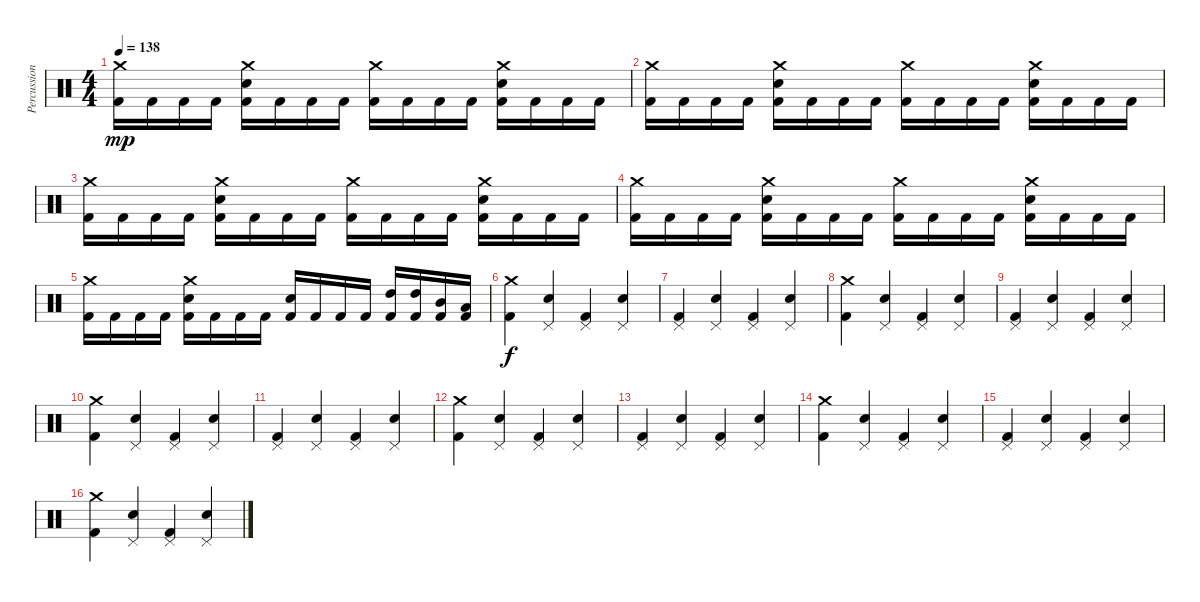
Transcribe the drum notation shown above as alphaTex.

\track ("Percussion" "Percussion") {instrument percussion}
\staff {score}
\articulation defaults
\ts (4 4)
\tempo 138
\clef neutral
\ks c
("Crash medium (hit)" "Kick (hit) 2").16{dy mp} "Kick (hit) 2".16 "Kick (hit) 2".16 "Kick (hit) 2".16 ("Crash medium (hit)" "Snare (hit) 2" "Kick (hit) 2").16 "Kick (hit) 2".16 "Kick (hit) 2".16 "Kick (hit) 2".16 ("Crash medium (hit)" "Kick (hit) 2").16 "Kick (hit) 2".16 "Kick (hit) 2".16 "Kick (hit) 2".16 ("Crash medium (hit)" "Snare (hit) 2" "Kick (hit) 2").16 "Kick (hit) 2".16 "Kick (hit) 2".16 "Kick (hit) 2".16 |
("Crash medium (hit)" "Kick (hit) 2").16 "Kick (hit) 2".16 "Kick (hit) 2".16 "Kick (hit) 2".16 ("Crash medium (hit)" "Snare (hit) 2" "Kick (hit) 2").16 "Kick (hit) 2".16 "Kick (hit) 2".16 "Kick (hit) 2".16 ("Crash medium (hit)" "Kick (hit) 2").16 "Kick (hit) 2".16 "Kick (hit) 2".16 "Kick (hit) 2".16 ("Crash medium (hit)" "Snare (hit) 2" "Kick (hit) 2").16 "Kick (hit) 2".16 "Kick (hit) 2".16 "Kick (hit) 2".16 |
("Crash medium (hit)" "Kick (hit) 2").16 "Kick (hit) 2".16 "Kick (hit) 2".16 "Kick (hit) 2".16 ("Crash medium (hit)" "Snare (hit) 2" "Kick (hit) 2").16 "Kick (hit) 2".16 "Kick (hit) 2".16 "Kick (hit) 2".16 ("Crash medium (hit)" "Kick (hit) 2").16 "Kick (hit) 2".16 "Kick (hit) 2".16 "Kick (hit) 2".16 ("Crash medium (hit)" "Snare (hit) 2" "Kick (hit) 2").16 "Kick (hit) 2".16 "Kick (hit) 2".16 "Kick (hit) 2".16 |
("Crash medium (hit)" "Kick (hit) 2").16 "Kick (hit) 2".16 "Kick (hit) 2".16 "Kick (hit) 2".16 ("Crash medium (hit)" "Snare (hit) 2" "Kick (hit) 2").16 "Kick (hit) 2".16 "Kick (hit) 2".16 "Kick (hit) 2".16 ("Crash medium (hit)" "Kick (hit) 2").16 "Kick (hit) 2".16 "Kick (hit) 2".16 "Kick (hit) 2".16 ("Crash medium (hit)" "Snare (hit) 2" "Kick (hit) 2").16 "Kick (hit) 2".16 "Kick (hit) 2".16 "Kick (hit) 2".16 |
("Crash medium (hit)" "Kick (hit) 2").16 "Kick (hit) 2".16 "Kick (hit) 2".16 "Kick (hit) 2".16 ("Crash medium (hit)" "Snare (hit) 2" "Kick (hit) 2").16 "Kick (hit) 2".16 "Kick (hit) 2".16 "Kick (hit) 2".16 ("Snare (hit) 2" "Kick (hit) 2").16 "Kick (hit) 2".16 "Kick (hit) 2".16 "Kick (hit) 2".16 ("High Tom (hit)" "Kick (hit) 2").16 ("High Tom (hit)" "Kick (hit) 2").16 ("Mid Tom (hit)" "Kick (hit) 2").16 ("Low Tom (hit)" "Kick (hit) 2").16 |
("Crash medium (hit)" "Kick (hit) 2").4{dy f} ("Pedal Hi-Hat (hit)" "Snare (hit) 2").4 ("Pedal Hi-Hat (hit)" "Kick (hit) 2").4 ("Pedal Hi-Hat (hit)" "Snare (hit) 2").4 |
("Pedal Hi-Hat (hit)" "Kick (hit) 2").4 ("Pedal Hi-Hat (hit)" "Snare (hit) 2").4 ("Pedal Hi-Hat (hit)" "Kick (hit) 2").4 ("Pedal Hi-Hat (hit)" "Snare (hit) 2").4 |
("Crash medium (hit)" "Kick (hit) 2").4 ("Pedal Hi-Hat (hit)" "Snare (hit) 2").4 ("Pedal Hi-Hat (hit)" "Kick (hit) 2").4 ("Pedal Hi-Hat (hit)" "Snare (hit) 2").4 |
("Pedal Hi-Hat (hit)" "Kick (hit) 2").4 ("Pedal Hi-Hat (hit)" "Snare (hit) 2").4 ("Pedal Hi-Hat (hit)" "Kick (hit) 2").4 ("Pedal Hi-Hat (hit)" "Snare (hit) 2").4 |
("Crash medium (hit)" "Kick (hit) 2").4 ("Pedal Hi-Hat (hit)" "Snare (hit) 2").4 ("Pedal Hi-Hat (hit)" "Kick (hit) 2").4 ("Pedal Hi-Hat (hit)" "Snare (hit) 2").4 |
("Pedal Hi-Hat (hit)" "Kick (hit) 2").4 ("Pedal Hi-Hat (hit)" "Snare (hit) 2").4 ("Pedal Hi-Hat (hit)" "Kick (hit) 2").4 ("Pedal Hi-Hat (hit)" "Snare (hit) 2").4 |
("Crash medium (hit)" "Kick (hit) 2").4 ("Pedal Hi-Hat (hit)" "Snare (hit) 2").4 ("Pedal Hi-Hat (hit)" "Kick (hit) 2").4 ("Pedal Hi-Hat (hit)" "Snare (hit) 2").4 |
("Pedal Hi-Hat (hit)" "Kick (hit) 2").4 ("Pedal Hi-Hat (hit)" "Snare (hit) 2").4 ("Pedal Hi-Hat (hit)" "Kick (hit) 2").4 ("Pedal Hi-Hat (hit)" "Snare (hit) 2").4 |
("Crash medium (hit)" "Kick (hit) 2").4 ("Pedal Hi-Hat (hit)" "Snare (hit) 2").4 ("Pedal Hi-Hat (hit)" "Kick (hit) 2").4 ("Pedal Hi-Hat (hit)" "Snare (hit) 2").4 |
("Pedal Hi-Hat (hit)" "Kick (hit) 2").4 ("Pedal Hi-Hat (hit)" "Snare (hit) 2").4 ("Pedal Hi-Hat (hit)" "Kick (hit) 2").4 ("Pedal Hi-Hat (hit)" "Snare (hit) 2").4 |
("Crash medium (hit)" "Kick (hit) 2").4 ("Pedal Hi-Hat (hit)" "Snare (hit) 2").4 ("Pedal Hi-Hat (hit)" "Kick (hit) 2").4 ("Pedal Hi-Hat (hit)" "Snare (hit) 2").4
